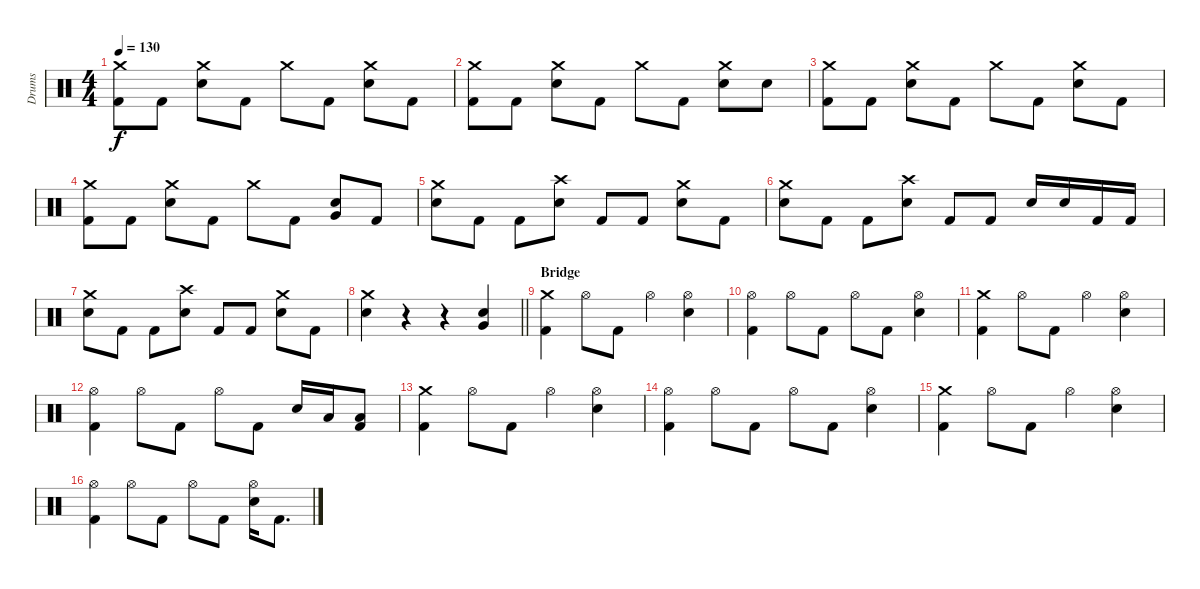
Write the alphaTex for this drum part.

\track ("Drums" "Drums") {instrument percussion}
\staff {score}
\articulation defaults
\ts (4 4)
\tempo 130
\clef neutral
\ks c
("Crash medium (hit)" "Kick (hit) 2").8{dy f} "Kick (hit) 2".8 ("Crash medium (hit)" "Electric Snare (hit)").8 "Kick (hit) 2".8 "Crash medium (hit)".8 "Kick (hit) 2".8 ("Crash medium (hit)" "Electric Snare (hit)").8 "Kick (hit) 2".8 |
("Crash medium (hit)" "Kick (hit) 2").8 "Kick (hit) 2".8 ("Crash medium (hit)" "Electric Snare (hit)").8 "Kick (hit) 2".8 "Crash medium (hit)".8 "Kick (hit) 2".8 ("Crash medium (hit)" "Electric Snare (hit)").8 "Electric Snare (hit)".8 |
("Crash medium (hit)" "Kick (hit) 2").8 "Kick (hit) 2".8 ("Crash medium (hit)" "Electric Snare (hit)").8 "Kick (hit) 2".8 "Crash medium (hit)".8 "Kick (hit) 2".8 ("Crash medium (hit)" "Electric Snare (hit)").8 "Kick (hit) 2".8 |
("Crash medium (hit)" "Kick (hit) 2").8 "Kick (hit) 2".8 ("Crash medium (hit)" "Electric Snare (hit)").8 "Kick (hit) 2".8 "Crash medium (hit)".8 "Kick (hit) 2".8 ("Very Low Tom (hit)" "Electric Snare (hit)").8 "Kick (hit) 2".8 |
("Crash medium (hit)" "Electric Snare (hit)").8 "Kick (hit) 2".8 "Kick (hit) 2".8 ("Crash high (hit)" "Electric Snare (hit)").8 "Kick (hit) 2".8 "Kick (hit) 2".8 ("Crash medium (hit)" "Electric Snare (hit)").8 "Kick (hit) 2".8 |
("Crash medium (hit)" "Electric Snare (hit)").8 "Kick (hit) 2".8 "Kick (hit) 2".8 ("Crash high (hit)" "Electric Snare (hit)").8 "Kick (hit) 2".8 "Kick (hit) 2".8 "Electric Snare (hit)".16 "Electric Snare (hit)".16 "Kick (hit) 2".16 "Kick (hit) 2".16 |
("Crash medium (hit)" "Electric Snare (hit)").8 "Kick (hit) 2".8 "Kick (hit) 2".8 ("Crash high (hit)" "Electric Snare (hit)").8 "Kick (hit) 2".8 "Kick (hit) 2".8 ("Crash medium (hit)" "Electric Snare (hit)").8 "Kick (hit) 2".8 |
\barLineRight lightlight
("Crash medium (hit)" "Electric Snare (hit)").4 r.4 r.4 ("Electric Snare (hit)" "Very Low Tom (hit)").4 |
\section ("" "Bridge")
("Crash medium (hit)" "Kick (hit) 2").4 "Hi-Hat (open)".8 "Kick (hit) 2".8 "Hi-Hat (open)".4 ("Hi-Hat (open)" "Electric Snare (hit)").4 |
("Hi-Hat (open)" "Kick (hit) 2").4 "Hi-Hat (open)".8 "Kick (hit) 2".8 "Hi-Hat (open)".8 "Kick (hit) 2".8 ("Hi-Hat (open)" "Electric Snare (hit)").4 |
("Crash medium (hit)" "Kick (hit) 2").4 "Hi-Hat (open)".8 "Kick (hit) 2".8 "Hi-Hat (open)".4 ("Hi-Hat (open)" "Electric Snare (hit)").4 |
("Hi-Hat (open)" "Kick (hit) 2").4 "Hi-Hat (open)".8 "Kick (hit) 2".8 "Hi-Hat (open)".8 "Kick (hit) 2".8 "Electric Snare (hit)".16 "Low Tom (hit)".16 ("Low Floor Tom (hit)" "Kick (hit) 2").8 |
("Crash medium (hit)" "Kick (hit) 2").4 "Hi-Hat (open)".8 "Kick (hit) 2".8 "Hi-Hat (open)".4 ("Hi-Hat (open)" "Electric Snare (hit)").4 |
("Hi-Hat (open)" "Kick (hit) 2").4 "Hi-Hat (open)".8 "Kick (hit) 2".8 "Hi-Hat (open)".8 "Kick (hit) 2".8 ("Hi-Hat (open)" "Electric Snare (hit)").4 |
("Crash medium (hit)" "Kick (hit) 2").4 "Hi-Hat (open)".8 "Kick (hit) 2".8 "Hi-Hat (open)".4 ("Hi-Hat (open)" "Electric Snare (hit)").4 |
("Hi-Hat (open)" "Kick (hit) 2").4 "Hi-Hat (open)".8 "Kick (hit) 2".8 "Hi-Hat (open)".8 "Kick (hit) 2".8 ("Hi-Hat (open)" "Electric Snare (hit)").16 "Kick (hit) 2".8{d}
